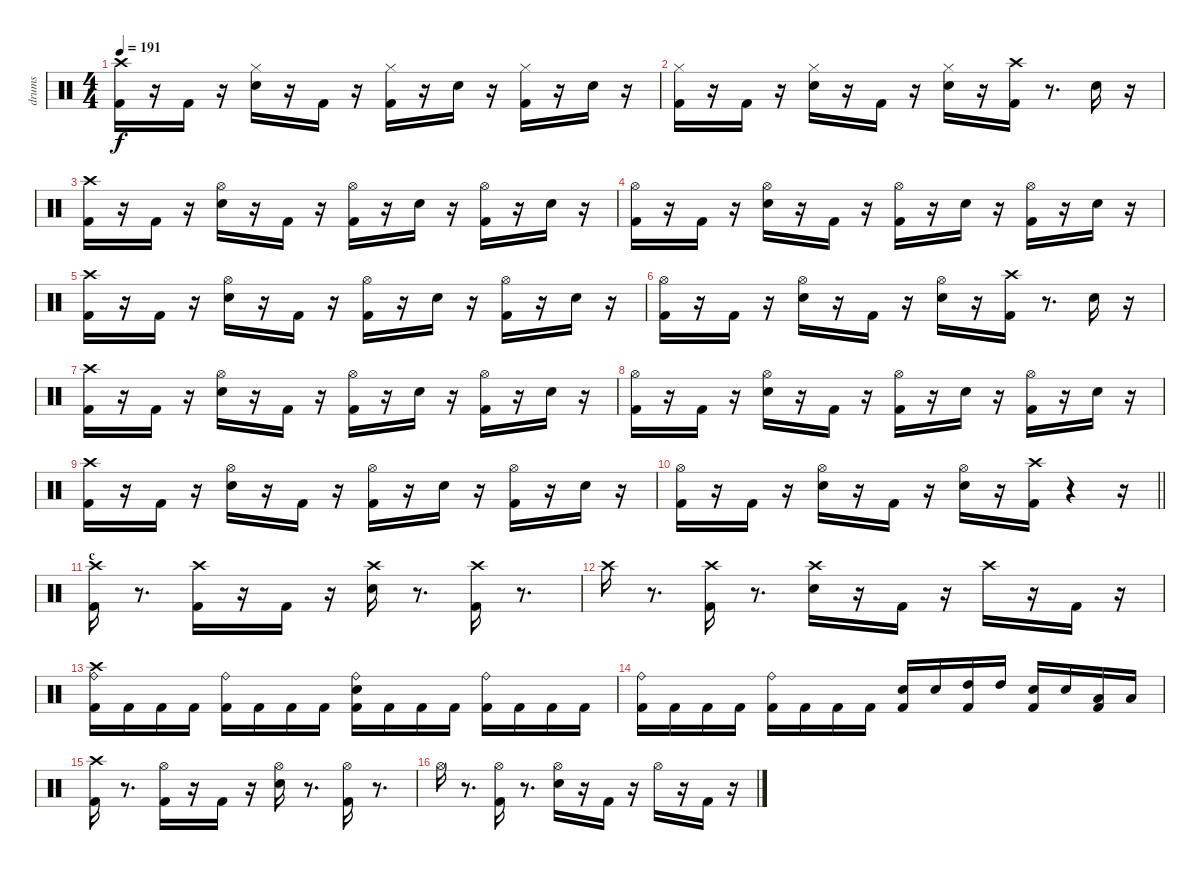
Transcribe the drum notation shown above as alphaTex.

\track ("drums" "drums") {instrument percussion}
\staff {score}
\articulation defaults
\ts (4 4)
\tempo 191
\clef neutral
\ks c
("Kick (hit) 2" "Crash high (hit)").16{dy f} r.16 "Kick (hit) 2".16 r.16 ("Snare (hit) 2" "Hi-Hat (closed)").16 r.16 "Kick (hit) 2".16 r.16 ("Kick (hit) 2" "Hi-Hat (closed)").16 r.16 "Snare (hit) 2".16 r.16 ("Kick (hit) 2" "Hi-Hat (closed)").16 r.16 "Snare (hit) 2".16 r.16 |
("Kick (hit) 2" "Hi-Hat (closed)").16 r.16 "Kick (hit) 2".16 r.16 ("Snare (hit) 2" "Hi-Hat (closed)").16 r.16 "Kick (hit) 2".16 r.16 ("Snare (hit) 2" "Hi-Hat (closed)").16 r.16 ("Kick (hit) 2" "Crash high (hit)").16 r.8{d} "Snare (hit) 2".16 r.16 |
("Kick (hit) 2" "Crash high (hit)").16 r.16 "Kick (hit) 2".16 r.16 ("Snare (hit) 2" "Hi-Hat (open)").16 r.16 "Kick (hit) 2".16 r.16 ("Kick (hit) 2" "Hi-Hat (open)").16 r.16 "Snare (hit) 2".16 r.16 ("Kick (hit) 2" "Hi-Hat (open)").16 r.16 "Snare (hit) 2".16 r.16 |
("Kick (hit) 2" "Hi-Hat (open)").16 r.16 "Kick (hit) 2".16 r.16 ("Snare (hit) 2" "Hi-Hat (open)").16 r.16 "Kick (hit) 2".16 r.16 ("Kick (hit) 2" "Hi-Hat (open)").16 r.16 "Snare (hit) 2".16 r.16 ("Kick (hit) 2" "Hi-Hat (open)").16 r.16 "Snare (hit) 2".16 r.16 |
("Kick (hit) 2" "Crash high (hit)").16 r.16 "Kick (hit) 2".16 r.16 ("Snare (hit) 2" "Hi-Hat (open)").16 r.16 "Kick (hit) 2".16 r.16 ("Kick (hit) 2" "Hi-Hat (open)").16 r.16 "Snare (hit) 2".16 r.16 ("Kick (hit) 2" "Hi-Hat (open)").16 r.16 "Snare (hit) 2".16 r.16 |
("Kick (hit) 2" "Hi-Hat (open)").16 r.16 "Kick (hit) 2".16 r.16 ("Snare (hit) 2" "Hi-Hat (open)").16 r.16 "Kick (hit) 2".16 r.16 ("Snare (hit) 2" "Hi-Hat (open)").16 r.16 ("Kick (hit) 2" "Crash high (hit)").16 r.8{d} "Snare (hit) 2".16 r.16 |
("Kick (hit) 2" "Crash high (hit)").16 r.16 "Kick (hit) 2".16 r.16 ("Snare (hit) 2" "Hi-Hat (open)").16 r.16 "Kick (hit) 2".16 r.16 ("Kick (hit) 2" "Hi-Hat (open)").16 r.16 "Snare (hit) 2".16 r.16 ("Kick (hit) 2" "Hi-Hat (open)").16 r.16 "Snare (hit) 2".16 r.16 |
("Kick (hit) 2" "Hi-Hat (open)").16 r.16 "Kick (hit) 2".16 r.16 ("Snare (hit) 2" "Hi-Hat (open)").16 r.16 "Kick (hit) 2".16 r.16 ("Kick (hit) 2" "Hi-Hat (open)").16 r.16 "Snare (hit) 2".16 r.16 ("Kick (hit) 2" "Hi-Hat (open)").16 r.16 "Snare (hit) 2".16 r.16 |
("Kick (hit) 2" "Crash high (hit)").16 r.16 "Kick (hit) 2".16 r.16 ("Snare (hit) 2" "Hi-Hat (open)").16 r.16 "Kick (hit) 2".16 r.16 ("Kick (hit) 2" "Hi-Hat (open)").16 r.16 "Snare (hit) 2".16 r.16 ("Kick (hit) 2" "Hi-Hat (open)").16 r.16 "Snare (hit) 2".16 r.16 |
\barLineRight lightlight
("Kick (hit) 2" "Hi-Hat (open)").16 r.16 "Kick (hit) 2".16 r.16 ("Snare (hit) 2" "Hi-Hat (open)").16 r.16 "Kick (hit) 2".16 r.16 ("Snare (hit) 2" "Hi-Hat (open)").16 r.16 ("Kick (hit) 2" "Crash high (hit)").16 r.4 r.16 |
\section ("" "c")
("Kick (hit) 2" "Crash high (hit)").16 r.8{d} ("Kick (hit) 2" "Crash high (hit)").16 r.16 "Kick (hit) 2".16 r.16 ("Snare (hit) 2" "Crash high (hit)").16 r.8{d} ("Kick (hit) 2" "Crash high (hit)").16 r.8{d} |
"Crash high (hit)".16 r.8{d} ("Kick (hit) 2" "Crash high (hit)").16 r.8{d} ("Snare (hit) 2" "Crash high (hit)").16 r.16 "Kick (hit) 2".16 r.16 "Crash high (hit)".16 r.16 "Kick (hit) 2".16 r.16 |
("Kick (hit) 2" "Crash high (hit)" "Ride (bell)").16 "Kick (hit) 2".16 "Kick (hit) 2".16 "Kick (hit) 2".16 ("Kick (hit) 2" "Ride (bell)").16 "Kick (hit) 2".16 "Kick (hit) 2".16 "Kick (hit) 2".16 ("Kick (hit) 2" "Snare (hit) 2" "Ride (bell)").16 "Kick (hit) 2".16 "Kick (hit) 2".16 "Kick (hit) 2".16 ("Kick (hit) 2" "Ride (bell)").16 "Kick (hit) 2".16 "Kick (hit) 2".16 "Kick (hit) 2".16 |
("Kick (hit) 2" "Ride (bell)").16 "Kick (hit) 2".16 "Kick (hit) 2".16 "Kick (hit) 2".16 ("Kick (hit) 2" "Ride (bell)").16 "Kick (hit) 2".16 "Kick (hit) 2".16 "Kick (hit) 2".16 ("Kick (hit) 2" "Snare (hit) 2").16 "Snare (hit) 2".16 ("Kick (hit) 2" "High Tom (hit)").16 "High Tom (hit)".16 ("Kick (hit) 2" "Snare (hit) 2").16 "Snare (hit) 2".16 ("Kick (hit) 2" "Low Tom (hit)").16 "Low Tom (hit)".16 |
("Kick (hit) 2" "Crash high (hit)").16 r.8{d} ("Kick (hit) 2" "Hi-Hat (open)").16 r.16 "Kick (hit) 2".16 r.16 ("Snare (hit) 2" "Hi-Hat (open)").16 r.8{d} ("Kick (hit) 2" "Hi-Hat (open)").16 r.8{d} |
"Hi-Hat (open)".16 r.8{d} ("Kick (hit) 2" "Hi-Hat (open)").16 r.8{d} ("Snare (hit) 2" "Hi-Hat (open)").16 r.16 "Kick (hit) 2".16 r.16 "Hi-Hat (open)".16 r.16 "Kick (hit) 2".16 r.16
